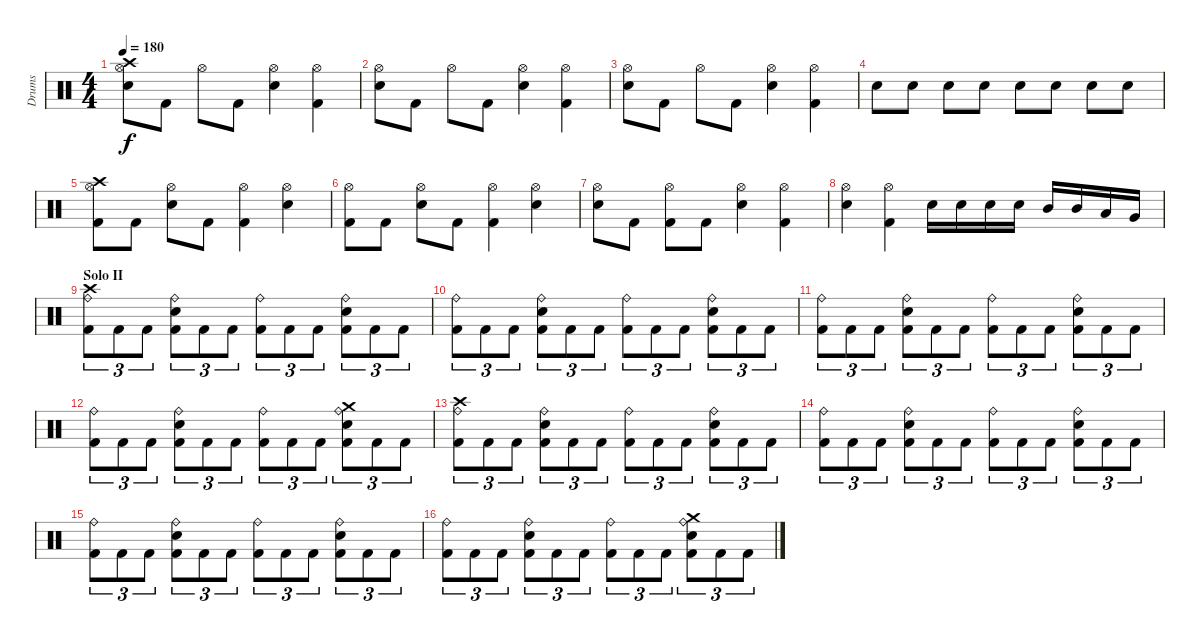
\track ("Drums" "Drums") {instrument percussion}
\staff {score}
\articulation defaults
\ts (4 4)
\tempo 180
\clef neutral
\ks c
("Hi-Hat (open)" "Electric Snare (hit)" "Crash high (hit)").8{dy f} "Kick (hit) 2".8 "Hi-Hat (open)".8 "Kick (hit) 2".8 ("Hi-Hat (open)" "Electric Snare (hit)").4 ("Hi-Hat (open)" "Kick (hit) 2").4 |
("Hi-Hat (open)" "Electric Snare (hit)").8 "Kick (hit) 2".8 "Hi-Hat (open)".8 "Kick (hit) 2".8 ("Hi-Hat (open)" "Electric Snare (hit)").4 ("Hi-Hat (open)" "Kick (hit) 2").4 |
("Hi-Hat (open)" "Electric Snare (hit)").8 "Kick (hit) 2".8 "Hi-Hat (open)".8 "Kick (hit) 2".8 ("Hi-Hat (open)" "Electric Snare (hit)").4 ("Hi-Hat (open)" "Kick (hit) 2").4 |
"Electric Snare (hit)".8 "Electric Snare (hit)".8 "Electric Snare (hit)".8 "Electric Snare (hit)".8 "Electric Snare (hit)".8 "Electric Snare (hit)".8 "Electric Snare (hit)".8 "Electric Snare (hit)".8 |
("Hi-Hat (open)" "Kick (hit) 2" "Crash high (hit)").8 "Kick (hit) 2".8 ("Hi-Hat (open)" "Electric Snare (hit)").8 "Kick (hit) 2".8 ("Hi-Hat (open)" "Kick (hit) 2").4 ("Hi-Hat (open)" "Electric Snare (hit)").4 |
("Hi-Hat (open)" "Kick (hit) 2").8 "Kick (hit) 2".8 ("Hi-Hat (open)" "Electric Snare (hit)").8 "Kick (hit) 2".8 ("Hi-Hat (open)" "Kick (hit) 2").4 ("Hi-Hat (open)" "Electric Snare (hit)").4 |
("Hi-Hat (open)" "Electric Snare (hit)").8 "Kick (hit) 2".8 ("Hi-Hat (open)" "Kick (hit) 2").8 "Kick (hit) 2".8 ("Hi-Hat (open)" "Electric Snare (hit)").4 ("Hi-Hat (open)" "Kick (hit) 2").4 |
("Hi-Hat (open)" "Electric Snare (hit)").4 ("Hi-Hat (open)" "Kick (hit) 2").4 "Electric Snare (hit)".16 "Electric Snare (hit)".16 "Electric Snare (hit)".16 "Electric Snare (hit)".16 "Mid Tom (hit)".16 "Mid Tom (hit)".16 "Low Tom (hit)".16 "Very Low Tom (hit)".16 |
\section ("" "Solo II")
("Kick (hit) 2" "Crash high (hit)" "Ride (bell)").8{tu (3 2)} "Kick (hit) 2".8{tu (3 2)} "Kick (hit) 2".8{tu (3 2)} ("Kick (hit) 2" "Electric Snare (hit)" "Ride (bell)").8{tu (3 2)} "Kick (hit) 2".8{tu (3 2)} "Kick (hit) 2".8{tu (3 2)} ("Kick (hit) 2" "Ride (bell)").8{tu (3 2)} "Kick (hit) 2".8{tu (3 2)} "Kick (hit) 2".8{tu (3 2)} ("Kick (hit) 2" "Electric Snare (hit)" "Ride (bell)").8{tu (3 2)} "Kick (hit) 2".8{tu (3 2)} "Kick (hit) 2".8{tu (3 2)} |
("Kick (hit) 2" "Ride (bell)").8{tu (3 2)} "Kick (hit) 2".8{tu (3 2)} "Kick (hit) 2".8{tu (3 2)} ("Kick (hit) 2" "Electric Snare (hit)" "Ride (bell)").8{tu (3 2)} "Kick (hit) 2".8{tu (3 2)} "Kick (hit) 2".8{tu (3 2)} ("Kick (hit) 2" "Ride (bell)").8{tu (3 2)} "Kick (hit) 2".8{tu (3 2)} "Kick (hit) 2".8{tu (3 2)} ("Kick (hit) 2" "Electric Snare (hit)" "Ride (bell)").8{tu (3 2)} "Kick (hit) 2".8{tu (3 2)} "Kick (hit) 2".8{tu (3 2)} |
("Kick (hit) 2" "Ride (bell)").8{tu (3 2)} "Kick (hit) 2".8{tu (3 2)} "Kick (hit) 2".8{tu (3 2)} ("Kick (hit) 2" "Electric Snare (hit)" "Ride (bell)").8{tu (3 2)} "Kick (hit) 2".8{tu (3 2)} "Kick (hit) 2".8{tu (3 2)} ("Kick (hit) 2" "Ride (bell)").8{tu (3 2)} "Kick (hit) 2".8{tu (3 2)} "Kick (hit) 2".8{tu (3 2)} ("Kick (hit) 2" "Electric Snare (hit)" "Ride (bell)").8{tu (3 2)} "Kick (hit) 2".8{tu (3 2)} "Kick (hit) 2".8{tu (3 2)} |
("Kick (hit) 2" "Ride (bell)").8{tu (3 2)} "Kick (hit) 2".8{tu (3 2)} "Kick (hit) 2".8{tu (3 2)} ("Kick (hit) 2" "Electric Snare (hit)" "Ride (bell)").8{tu (3 2)} "Kick (hit) 2".8{tu (3 2)} "Kick (hit) 2".8{tu (3 2)} ("Kick (hit) 2" "Ride (bell)").8{tu (3 2)} "Kick (hit) 2".8{tu (3 2)} "Kick (hit) 2".8{tu (3 2)} ("Kick (hit) 2" "Electric Snare (hit)" "Ride (bell)" "Crash medium (hit)").8{tu (3 2)} "Kick (hit) 2".8{tu (3 2)} "Kick (hit) 2".8{tu (3 2)} |
("Kick (hit) 2" "Crash high (hit)" "Ride (bell)").8{tu (3 2)} "Kick (hit) 2".8{tu (3 2)} "Kick (hit) 2".8{tu (3 2)} ("Kick (hit) 2" "Electric Snare (hit)" "Ride (bell)").8{tu (3 2)} "Kick (hit) 2".8{tu (3 2)} "Kick (hit) 2".8{tu (3 2)} ("Kick (hit) 2" "Ride (bell)").8{tu (3 2)} "Kick (hit) 2".8{tu (3 2)} "Kick (hit) 2".8{tu (3 2)} ("Kick (hit) 2" "Electric Snare (hit)" "Ride (bell)").8{tu (3 2)} "Kick (hit) 2".8{tu (3 2)} "Kick (hit) 2".8{tu (3 2)} |
("Kick (hit) 2" "Ride (bell)").8{tu (3 2)} "Kick (hit) 2".8{tu (3 2)} "Kick (hit) 2".8{tu (3 2)} ("Kick (hit) 2" "Electric Snare (hit)" "Ride (bell)").8{tu (3 2)} "Kick (hit) 2".8{tu (3 2)} "Kick (hit) 2".8{tu (3 2)} ("Kick (hit) 2" "Ride (bell)").8{tu (3 2)} "Kick (hit) 2".8{tu (3 2)} "Kick (hit) 2".8{tu (3 2)} ("Kick (hit) 2" "Electric Snare (hit)" "Ride (bell)").8{tu (3 2)} "Kick (hit) 2".8{tu (3 2)} "Kick (hit) 2".8{tu (3 2)} |
("Kick (hit) 2" "Ride (bell)").8{tu (3 2)} "Kick (hit) 2".8{tu (3 2)} "Kick (hit) 2".8{tu (3 2)} ("Kick (hit) 2" "Electric Snare (hit)" "Ride (bell)").8{tu (3 2)} "Kick (hit) 2".8{tu (3 2)} "Kick (hit) 2".8{tu (3 2)} ("Kick (hit) 2" "Ride (bell)").8{tu (3 2)} "Kick (hit) 2".8{tu (3 2)} "Kick (hit) 2".8{tu (3 2)} ("Kick (hit) 2" "Electric Snare (hit)" "Ride (bell)").8{tu (3 2)} "Kick (hit) 2".8{tu (3 2)} "Kick (hit) 2".8{tu (3 2)} |
("Kick (hit) 2" "Ride (bell)").8{tu (3 2)} "Kick (hit) 2".8{tu (3 2)} "Kick (hit) 2".8{tu (3 2)} ("Kick (hit) 2" "Electric Snare (hit)" "Ride (bell)").8{tu (3 2)} "Kick (hit) 2".8{tu (3 2)} "Kick (hit) 2".8{tu (3 2)} ("Kick (hit) 2" "Ride (bell)").8{tu (3 2)} "Kick (hit) 2".8{tu (3 2)} "Kick (hit) 2".8{tu (3 2)} ("Kick (hit) 2" "Electric Snare (hit)" "Ride (bell)" "Crash medium (hit)").8{tu (3 2)} "Kick (hit) 2".8{tu (3 2)} "Kick (hit) 2".8{tu (3 2)}
